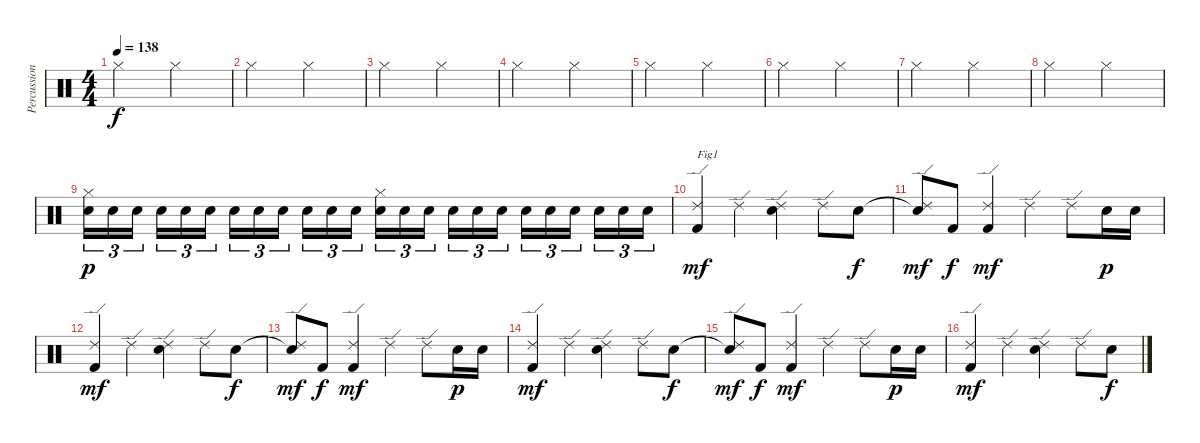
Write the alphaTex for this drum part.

\track ("Percussions" "Percussion") {instrument percussion}
\staff {score}
\articulation defaults
\ts (4 4)
\tempo 138
\clef neutral
\ks c "Hi-Hat (closed)".2{dy f} "Hi-Hat (closed)".2
|
"Hi-Hat (closed)".2 "Hi-Hat (closed)".2 |
"Hi-Hat (closed)".2 "Hi-Hat (closed)".2 |
"Hi-Hat (closed)".2 "Hi-Hat (closed)".2 |
"Hi-Hat (closed)".2 "Hi-Hat (closed)".2 |
"Hi-Hat (closed)".2 "Hi-Hat (closed)".2 |
"Hi-Hat (closed)".2 "Hi-Hat (closed)".2 |
"Hi-Hat (closed)".2 "Hi-Hat (closed)".2 |
("Snare (hit) 2" "Hi-Hat (closed)").16{tu (3 2) dy p} "Snare (hit) 2".16{tu (3 2)} "Snare (hit) 2".16{tu (3 2)} "Snare (hit) 2".16{tu (3 2)} "Snare (hit) 2".16{tu (3 2)} "Snare (hit) 2".16{tu (3 2)} "Snare (hit) 2".16{tu (3 2)} "Snare (hit) 2".16{tu (3 2)} "Snare (hit) 2".16{tu (3 2)} "Snare (hit) 2".16{tu (3 2)} "Snare (hit) 2".16{tu (3 2)} "Snare (hit) 2".16{tu (3 2)} ("Snare (hit) 2" "Hi-Hat (closed)").16{tu (3 2)} "Snare (hit) 2".16{tu (3 2)} "Snare (hit) 2".16{tu (3 2)} "Snare (hit) 2".16{tu (3 2)} "Snare (hit) 2".16{tu (3 2)} "Snare (hit) 2".16{tu (3 2)} "Snare (hit) 2".16{tu (3 2)} "Snare (hit) 2".16{tu (3 2)} "Snare (hit) 2".16{tu (3 2)} "Snare (hit) 2".16{tu (3 2)} "Snare (hit) 2".16{tu (3 2)} "Snare (hit) 2".16{tu (3 2)} |
("Kick (hit) 2" "Ride (edge) 2").4{txt "Fig1" dy mf} "Ride (edge) 2".4 ("Snare (hit) 2" "Ride (edge) 2").4 "Ride (edge) 2".8 "Snare (hit) 2".8{dy f} |
("Snare (hit)"{t} "Ride (edge) 2").8{dy mf} "Kick (hit) 2".8{dy f} ("Kick (hit) 2" "Ride (edge) 2").4{dy mf} "Ride (edge) 2".4 "Ride (edge) 2".8 "Snare (hit) 2".16{dy p} "Snare (hit) 2".16 |
("Kick (hit) 2" "Ride (edge) 2").4{dy mf} "Ride (edge) 2".4 ("Snare (hit) 2" "Ride (edge) 2").4 "Ride (edge) 2".8 "Snare (hit) 2".8{dy f} |
("Snare (hit)"{t} "Ride (edge) 2").8{dy mf} "Kick (hit) 2".8{dy f} ("Kick (hit) 2" "Ride (edge) 2").4{dy mf} "Ride (edge) 2".4 "Ride (edge) 2".8 "Snare (hit) 2".16{dy p} "Snare (hit) 2".16 |
("Kick (hit) 2" "Ride (edge) 2").4{dy mf} "Ride (edge) 2".4 ("Snare (hit) 2" "Ride (edge) 2").4 "Ride (edge) 2".8 "Snare (hit) 2".8{dy f} |
("Snare (hit)"{t} "Ride (edge) 2").8{dy mf} "Kick (hit) 2".8{dy f} ("Kick (hit) 2" "Ride (edge) 2").4{dy mf} "Ride (edge) 2".4 "Ride (edge) 2".8 "Snare (hit) 2".16{dy p} "Snare (hit) 2".16 |
("Kick (hit) 2" "Ride (edge) 2").4{dy mf} "Ride (edge) 2".4 ("Snare (hit) 2" "Ride (edge) 2").4 "Ride (edge) 2".8 "Snare (hit) 2".8{dy f}
